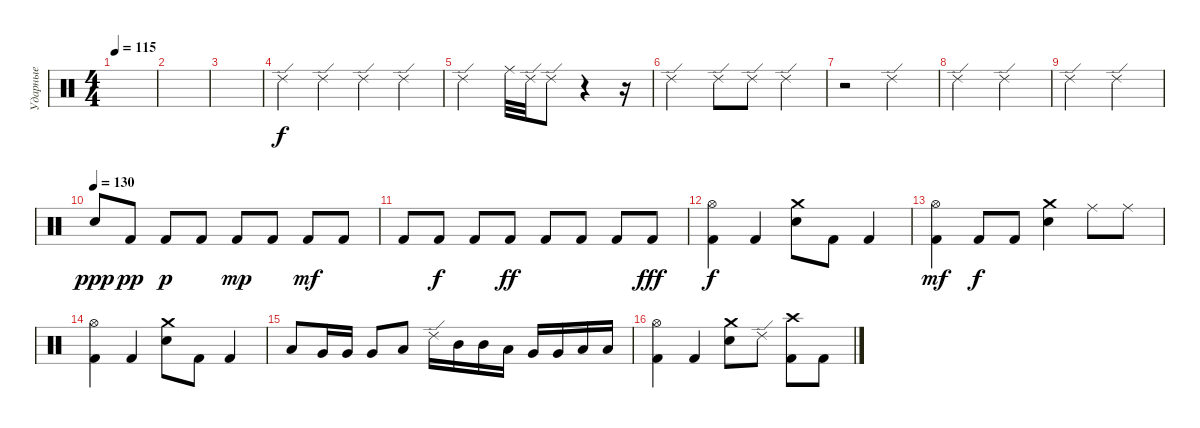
\track ("Ударные" "Ударные") {instrument percussion}
\staff {score}
\articulation defaults
\ts (4 4)
\tempo 115
\clef neutral
\ks c
|
|
|
"Ride (edge) 2".4 "Ride (edge) 2".4 "Ride (edge) 2".4 "Ride (edge) 2".4 |
"Ride (edge) 2".2 "Ride (middle)".32 "Ride (edge) 2".32 "Ride (edge) 2".8 r.4 r.16 |
"Ride (edge) 2".2 "Ride (edge) 2".8 "Ride (edge) 2".8 "Ride (edge) 2".4 |
r.2 "Ride (edge) 2".2 |
"Ride (edge) 2".2 "Ride (edge) 2".2 |
"Ride (edge) 2".2 "Ride (edge) 2".2 |
\tempo (130)
"Electric Snare (hit)".8{dy ppp} "Kick (hit) 2".8{dy pp} "Kick (hit) 2".8{dy p} "Kick (hit) 2".8 "Kick (hit) 2".8{dy mp} "Kick (hit) 2".8 "Kick (hit) 2".8{dy mf} "Kick (hit) 2".8 |
"Kick (hit) 2".8 "Kick (hit) 2".8{dy f} "Kick (hit) 2".8 "Kick (hit) 2".8{dy ff} "Kick (hit) 2".8 "Kick (hit) 2".8 "Kick (hit) 2".8 "Kick (hit) 2".8{dy fff} |
("Hi-Hat (open)" "Kick (hit) 2").4{dy f} "Kick (hit) 2".4 ("Electric Snare (hit)" "Crash medium (hit)").8 "Kick (hit) 2".8 "Kick (hit) 2".4 |
("Kick (hit) 2" "Hi-Hat (open)").4{dy mf} "Kick (hit) 2".8{dy f} "Kick (hit) 2".8 ("Electric Snare (hit)" "Crash medium (hit)").4 "Ride (middle)".8 "Ride (middle)".8 |
("Hi-Hat (open)" "Kick (hit) 2").4 "Kick (hit) 2".4 ("Electric Snare (hit)" "Crash medium (hit)").8 "Kick (hit) 2".8 "Kick (hit) 2".4 |
"Low Tom (hit)".8 "Very Low Tom (hit)".16 "Very Low Tom (hit)".16 "Very Low Tom (hit)".8 "Low Floor Tom (hit)".8 "Ride (edge) 2".16 "Mid Tom (hit)".16 "Mid Tom (hit)".16 "Low Tom (hit)".16 "Very Low Tom (hit)".16 "Very Low Tom (hit)".16 "Low Floor Tom (hit)".16 "Low Floor Tom (hit)".16 |
("Kick (hit) 2" "Hi-Hat (open)").4 "Kick (hit) 2".4 ("Electric Snare (hit)" "Crash medium (hit)").8 "Ride (edge) 2".8 ("Kick (hit) 2" "Crash high (hit)").8 "Kick (hit) 2".8
